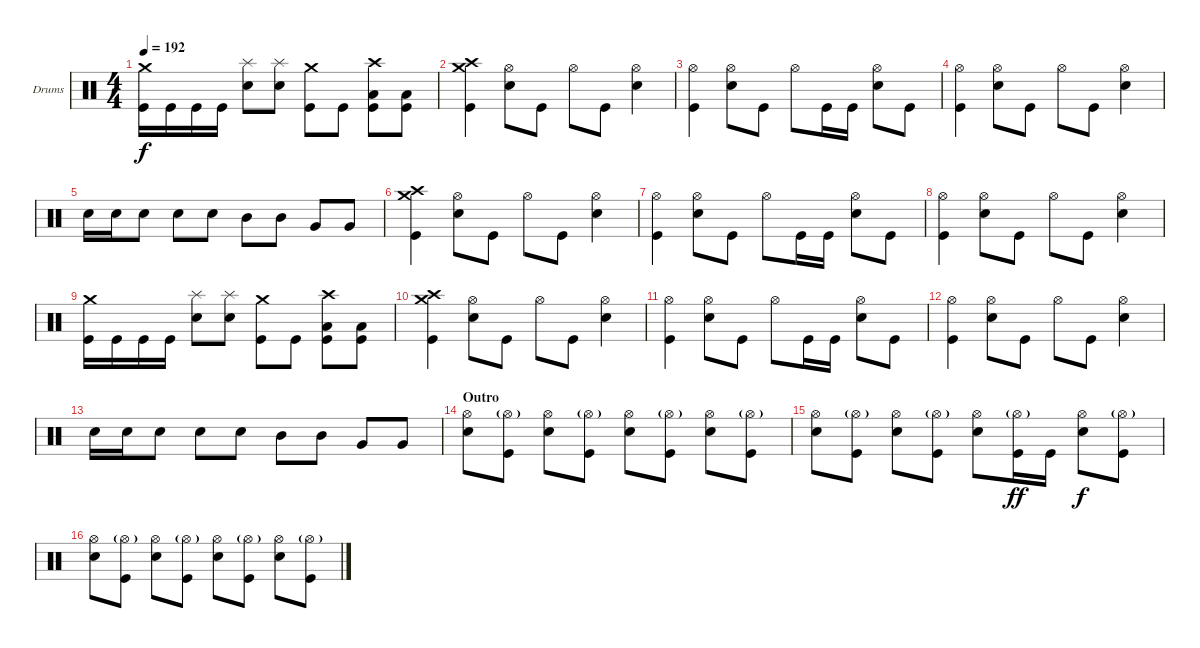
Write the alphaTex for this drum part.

\bracketExtendMode groupsimilarinstruments
\firstSystemTrackNameOrientation horizontal
\otherSystemsTrackNameOrientation horizontal
\track ("Corey Friedlander" "Drums") {instrument percussion}
\staff {score}
\articulation defaults
\ts (4 4)
\tempo 192
\clef neutral
\ks aminor
("Kick (hit)" "Crash medium (hit)").16{dy f} "Kick (hit)".16 "Kick (hit)".16 "Kick (hit)".16 ("Snare (hit) 2" "Splash (hit)").8 ("Snare (hit) 2" "Splash (hit)").8 ("Kick (hit)" "Crash medium (hit)").8 "Kick (hit)".8 ("Kick (hit)" "Low Tom (hit)" "Crash high (hit)").8 ("Low Tom (hit)" "Kick (hit)").8 |
("Kick (hit)" "Crash medium (hit)" "Crash high (hit)").4 ("Snare (hit) 2" "Hi-Hat (open)").8 "Kick (hit)".8 "Hi-Hat (open)".8 "Kick (hit)".8 ("Snare (hit) 2" "Hi-Hat (open)").4 |
("Kick (hit)" "Hi-Hat (open)").4 ("Snare (hit) 2" "Hi-Hat (open)").8 "Kick (hit)".8 "Hi-Hat (open)".8 "Kick (hit)".16 "Kick (hit)".16 ("Snare (hit) 2" "Hi-Hat (open)").8 "Kick (hit)".8 |
("Kick (hit)" "Hi-Hat (open)").4 ("Snare (hit) 2" "Hi-Hat (open)").8 "Kick (hit)".8 "Hi-Hat (open)".8 "Kick (hit)".8 ("Snare (hit) 2" "Hi-Hat (open)").4 |
"Snare (hit) 2".16 "Snare (hit) 2".16 "Snare (hit) 2".8 "Snare (hit) 2".8 "Snare (hit) 2".8 "Mid Tom (hit)".8 "Mid Tom (hit)".8 "Very Low Tom (hit)".8 "Very Low Tom (hit)".8 |
("Kick (hit)" "Crash medium (hit)" "Crash high (hit)").4 ("Snare (hit) 2" "Hi-Hat (open)").8 "Kick (hit)".8 "Hi-Hat (open)".8 "Kick (hit)".8 ("Snare (hit) 2" "Hi-Hat (open)").4 |
("Kick (hit)" "Hi-Hat (open)").4 ("Snare (hit) 2" "Hi-Hat (open)").8 "Kick (hit)".8 "Hi-Hat (open)".8 "Kick (hit)".16 "Kick (hit)".16 ("Snare (hit) 2" "Hi-Hat (open)").8 "Kick (hit)".8 |
("Kick (hit)" "Hi-Hat (open)").4 ("Snare (hit) 2" "Hi-Hat (open)").8 "Kick (hit)".8 "Hi-Hat (open)".8 "Kick (hit)".8 ("Snare (hit) 2" "Hi-Hat (open)").4 |
("Kick (hit)" "Crash medium (hit)").16 "Kick (hit)".16 "Kick (hit)".16 "Kick (hit)".16 ("Snare (hit) 2" "Splash (hit)").8 ("Snare (hit) 2" "Splash (hit)").8 ("Kick (hit)" "Crash medium (hit)").8 "Kick (hit)".8 ("Kick (hit)" "Low Tom (hit)" "Crash high (hit)").8 ("Low Tom (hit)" "Kick (hit)").8 |
("Kick (hit)" "Crash medium (hit)" "Crash high (hit)").4 ("Snare (hit) 2" "Hi-Hat (open)").8 "Kick (hit)".8 "Hi-Hat (open)".8 "Kick (hit)".8 ("Snare (hit) 2" "Hi-Hat (open)").4 |
("Kick (hit)" "Hi-Hat (open)").4 ("Snare (hit) 2" "Hi-Hat (open)").8 "Kick (hit)".8 "Hi-Hat (open)".8 "Kick (hit)".16 "Kick (hit)".16 ("Snare (hit) 2" "Hi-Hat (open)").8 "Kick (hit)".8 |
("Kick (hit)" "Hi-Hat (open)").4 ("Snare (hit) 2" "Hi-Hat (open)").8 "Kick (hit)".8 "Hi-Hat (open)".8 "Kick (hit)".8 ("Snare (hit) 2" "Hi-Hat (open)").4 |
"Snare (hit) 2".16 "Snare (hit) 2".16 "Snare (hit) 2".8 "Snare (hit) 2".8 "Snare (hit) 2".8 "Mid Tom (hit)".8 "Mid Tom (hit)".8 "Very Low Tom (hit)".8 "Very Low Tom (hit)".8 |
\section ("" "Outro")
("Snare (hit) 2" "Hi-Hat (open)").8 ("Kick (hit)" "Hi-Hat (open)"{g}).8 ("Snare (hit) 2" "Hi-Hat (open)").8 ("Kick (hit)" "Hi-Hat (open)"{g}).8 ("Snare (hit) 2" "Hi-Hat (open)").8 ("Kick (hit)" "Hi-Hat (open)"{g}).8 ("Snare (hit) 2" "Hi-Hat (open)").8 ("Kick (hit)" "Hi-Hat (open)"{g}).8 |
("Snare (hit) 2" "Hi-Hat (open)").8 ("Kick (hit)" "Hi-Hat (open)"{g}).8 ("Snare (hit) 2" "Hi-Hat (open)").8 ("Kick (hit)" "Hi-Hat (open)"{g}).8 ("Snare (hit) 2" "Hi-Hat (open)").8 ("Kick (hit)" "Hi-Hat (open)"{g}).16{dy ff} "Kick (hit)".16 ("Snare (hit) 2" "Hi-Hat (open)").8{dy f} ("Kick (hit)" "Hi-Hat (open)"{g}).8 |
("Snare (hit) 2" "Hi-Hat (open)").8 ("Kick (hit)" "Hi-Hat (open)"{g}).8 ("Snare (hit) 2" "Hi-Hat (open)").8 ("Kick (hit)" "Hi-Hat (open)"{g}).8 ("Snare (hit) 2" "Hi-Hat (open)").8 ("Kick (hit)" "Hi-Hat (open)"{g}).8 ("Snare (hit) 2" "Hi-Hat (open)").8 ("Kick (hit)" "Hi-Hat (open)"{g}).8
